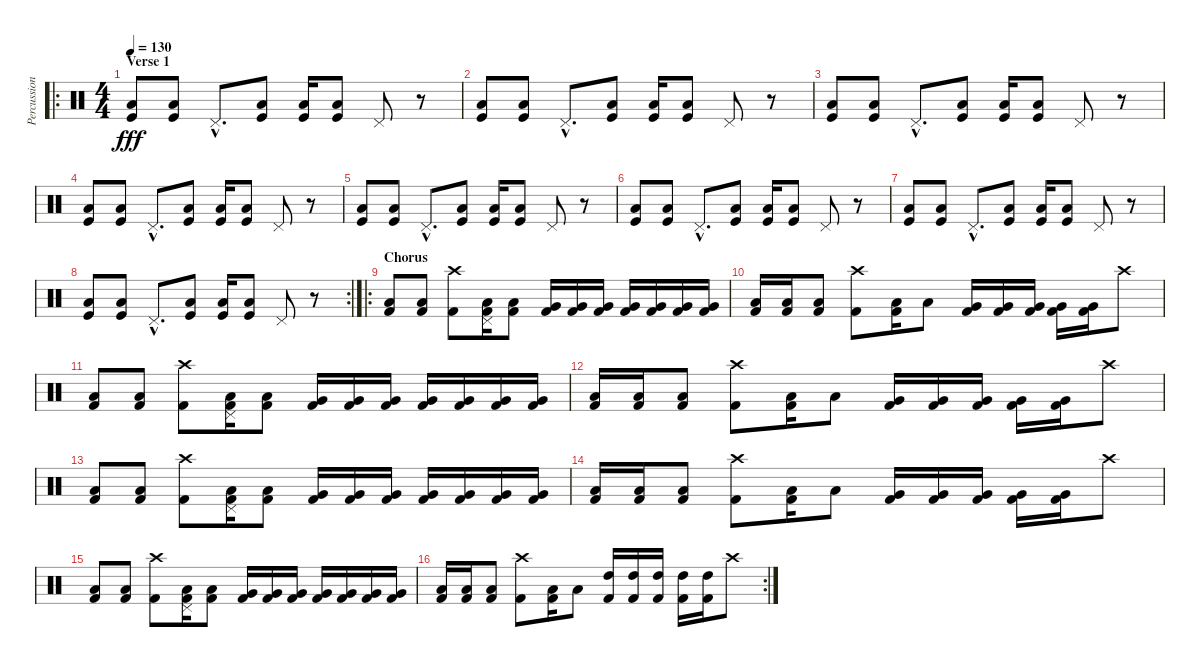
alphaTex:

\track ("Percussion" "Percussion") {instrument percussion}
\staff {score}
\articulation defaults
\ro
\ts (4 4)
\section ("" "Verse 1")
\tempo 130
\clef neutral
\ks c
("Low Floor Tom (hit)" "Kick (hit)").8{dy fff volume 11} ("Low Floor Tom (hit)" "Kick (hit)").8 "Pedal Hi-Hat (hit)"{hac}.8{d} ("Low Floor Tom (hit)" "Kick (hit)").8 ("Low Floor Tom (hit)" "Kick (hit)").16 ("Low Floor Tom (hit)" "Kick (hit)").8 "Pedal Hi-Hat (hit)".8 r.8 |
("Low Floor Tom (hit)" "Kick (hit)").8 ("Low Floor Tom (hit)" "Kick (hit)").8 "Pedal Hi-Hat (hit)"{hac}.8{d} ("Low Floor Tom (hit)" "Kick (hit)").8 ("Low Floor Tom (hit)" "Kick (hit)").16 ("Low Floor Tom (hit)" "Kick (hit)").8 "Pedal Hi-Hat (hit)".8 r.8 |
("Low Floor Tom (hit)" "Kick (hit)").8 ("Low Floor Tom (hit)" "Kick (hit)").8 "Pedal Hi-Hat (hit)"{hac}.8{d} ("Low Floor Tom (hit)" "Kick (hit)").8 ("Low Floor Tom (hit)" "Kick (hit)").16 ("Low Floor Tom (hit)" "Kick (hit)").8 "Pedal Hi-Hat (hit)".8 r.8 |
("Low Floor Tom (hit)" "Kick (hit)").8 ("Low Floor Tom (hit)" "Kick (hit)").8 "Pedal Hi-Hat (hit)"{hac}.8{d} ("Low Floor Tom (hit)" "Kick (hit)").8 ("Low Floor Tom (hit)" "Kick (hit)").16 ("Low Floor Tom (hit)" "Kick (hit)").8 "Pedal Hi-Hat (hit)".8 r.8 |
("Low Floor Tom (hit)" "Kick (hit)").8 ("Low Floor Tom (hit)" "Kick (hit)").8 "Pedal Hi-Hat (hit)"{hac}.8{d} ("Low Floor Tom (hit)" "Kick (hit)").8 ("Low Floor Tom (hit)" "Kick (hit)").16 ("Low Floor Tom (hit)" "Kick (hit)").8 "Pedal Hi-Hat (hit)".8 r.8 |
("Low Floor Tom (hit)" "Kick (hit)").8 ("Low Floor Tom (hit)" "Kick (hit)").8 "Pedal Hi-Hat (hit)"{hac}.8{d} ("Low Floor Tom (hit)" "Kick (hit)").8 ("Low Floor Tom (hit)" "Kick (hit)").16 ("Low Floor Tom (hit)" "Kick (hit)").8 "Pedal Hi-Hat (hit)".8 r.8 |
("Low Floor Tom (hit)" "Kick (hit)").8 ("Low Floor Tom (hit)" "Kick (hit)").8 "Pedal Hi-Hat (hit)"{hac}.8{d} ("Low Floor Tom (hit)" "Kick (hit)").8 ("Low Floor Tom (hit)" "Kick (hit)").16 ("Low Floor Tom (hit)" "Kick (hit)").8 "Pedal Hi-Hat (hit)".8 r.8 |
\rc 2
("Low Floor Tom (hit)" "Kick (hit)").8 ("Low Floor Tom (hit)" "Kick (hit)").8 "Pedal Hi-Hat (hit)"{hac}.8{d} ("Low Floor Tom (hit)" "Kick (hit)").8 ("Low Floor Tom (hit)" "Kick (hit)").16 ("Low Floor Tom (hit)" "Kick (hit)").8 "Pedal Hi-Hat (hit)".8 r.8 |
\ro
\section ("" "Chorus")
("Low Floor Tom (hit)" "Kick (hit) 2").8 ("Low Floor Tom (hit)" "Kick (hit) 2").8 ("Crash high (hit)" "Kick (hit) 2").8 ("Pedal Hi-Hat (hit)" "Low Floor Tom (hit)" "Kick (hit) 2").16 ("Low Floor Tom (hit)" "Kick (hit) 2").8 ("Very Low Tom (hit)" "Kick (hit) 2").16 ("Very Low Tom (hit)" "Kick (hit) 2").16 ("Very Low Tom (hit)" "Kick (hit) 2").16 ("Very Low Tom (hit)" "Kick (hit) 2").16 ("Very Low Tom (hit)" "Kick (hit) 2").16 ("Very Low Tom (hit)" "Kick (hit) 2").16 ("Very Low Tom (hit)" "Kick (hit) 2").16 |
("Low Floor Tom (hit)" "Kick (hit) 2").16 ("Low Floor Tom (hit)" "Kick (hit) 2").16 ("Low Floor Tom (hit)" "Kick (hit) 2").8 ("Crash high (hit)" "Kick (hit) 2").8 ("Low Floor Tom (hit)" "Kick (hit) 2").16 "Low Floor Tom (hit)".8 ("Very Low Tom (hit)" "Kick (hit) 2").16 ("Very Low Tom (hit)" "Kick (hit) 2").16 ("Very Low Tom (hit)" "Kick (hit) 2").16 ("Very Low Tom (hit)" "Kick (hit) 2").16 ("Very Low Tom (hit)" "Kick (hit) 2").16 "Crash high (hit)".8 |
("Low Floor Tom (hit)" "Kick (hit) 2").8 ("Low Floor Tom (hit)" "Kick (hit) 2").8 ("Crash high (hit)" "Kick (hit) 2").8 ("Pedal Hi-Hat (hit)" "Low Floor Tom (hit)" "Kick (hit) 2").16 ("Low Floor Tom (hit)" "Kick (hit) 2").8 ("Very Low Tom (hit)" "Kick (hit) 2").16 ("Very Low Tom (hit)" "Kick (hit) 2").16 ("Very Low Tom (hit)" "Kick (hit) 2").16 ("Very Low Tom (hit)" "Kick (hit) 2").16 ("Very Low Tom (hit)" "Kick (hit) 2").16 ("Very Low Tom (hit)" "Kick (hit) 2").16 ("Very Low Tom (hit)" "Kick (hit) 2").16 |
("Low Floor Tom (hit)" "Kick (hit) 2").16 ("Low Floor Tom (hit)" "Kick (hit) 2").16 ("Low Floor Tom (hit)" "Kick (hit) 2").8 ("Crash high (hit)" "Kick (hit) 2").8 ("Low Floor Tom (hit)" "Kick (hit) 2").16 "Low Floor Tom (hit)".8 ("Very Low Tom (hit)" "Kick (hit) 2").16 ("Very Low Tom (hit)" "Kick (hit) 2").16 ("Very Low Tom (hit)" "Kick (hit) 2").16 ("Very Low Tom (hit)" "Kick (hit) 2").16 ("Very Low Tom (hit)" "Kick (hit) 2").16 "Crash high (hit)".8 |
("Low Floor Tom (hit)" "Kick (hit) 2").8 ("Low Floor Tom (hit)" "Kick (hit) 2").8 ("Crash high (hit)" "Kick (hit) 2").8 ("Pedal Hi-Hat (hit)" "Low Floor Tom (hit)" "Kick (hit) 2").16 ("Low Floor Tom (hit)" "Kick (hit) 2").8 ("Very Low Tom (hit)" "Kick (hit) 2").16 ("Very Low Tom (hit)" "Kick (hit) 2").16 ("Very Low Tom (hit)" "Kick (hit) 2").16 ("Very Low Tom (hit)" "Kick (hit) 2").16 ("Very Low Tom (hit)" "Kick (hit) 2").16 ("Very Low Tom (hit)" "Kick (hit) 2").16 ("Very Low Tom (hit)" "Kick (hit) 2").16 |
("Low Floor Tom (hit)" "Kick (hit) 2").16 ("Low Floor Tom (hit)" "Kick (hit) 2").16 ("Low Floor Tom (hit)" "Kick (hit) 2").8 ("Crash high (hit)" "Kick (hit) 2").8 ("Low Floor Tom (hit)" "Kick (hit) 2").16 "Low Floor Tom (hit)".8 ("Very Low Tom (hit)" "Kick (hit) 2").16 ("Very Low Tom (hit)" "Kick (hit) 2").16 ("Very Low Tom (hit)" "Kick (hit) 2").16 ("Very Low Tom (hit)" "Kick (hit) 2").16 ("Very Low Tom (hit)" "Kick (hit) 2").16 "Crash high (hit)".8 |
("Low Floor Tom (hit)" "Kick (hit) 2").8 ("Low Floor Tom (hit)" "Kick (hit) 2").8 ("Crash high (hit)" "Kick (hit) 2").8 ("Pedal Hi-Hat (hit)" "Low Floor Tom (hit)" "Kick (hit) 2").16 ("Low Floor Tom (hit)" "Kick (hit) 2").8 ("Very Low Tom (hit)" "Kick (hit) 2").16 ("Very Low Tom (hit)" "Kick (hit) 2").16 ("Very Low Tom (hit)" "Kick (hit) 2").16 ("Very Low Tom (hit)" "Kick (hit) 2").16 ("Very Low Tom (hit)" "Kick (hit) 2").16 ("Very Low Tom (hit)" "Kick (hit) 2").16 ("Very Low Tom (hit)" "Kick (hit) 2").16 |
\rc 2
("Low Tom (hit)" "Kick (hit) 2").16 ("Low Tom (hit)" "Kick (hit) 2").16 ("Low Tom (hit)" "Kick (hit) 2").8 ("Crash high (hit)" "Kick (hit) 2").8 ("Low Tom (hit)" "Kick (hit) 2").16 "Low Tom (hit)".8 ("High Tom (hit)" "Kick (hit) 2").16 ("High Tom (hit)" "Kick (hit) 2").16 ("High Tom (hit)" "Kick (hit) 2").16 ("High Tom (hit)" "Kick (hit) 2").16 ("High Tom (hit)" "Kick (hit) 2").16 "Crash high (hit)".8
